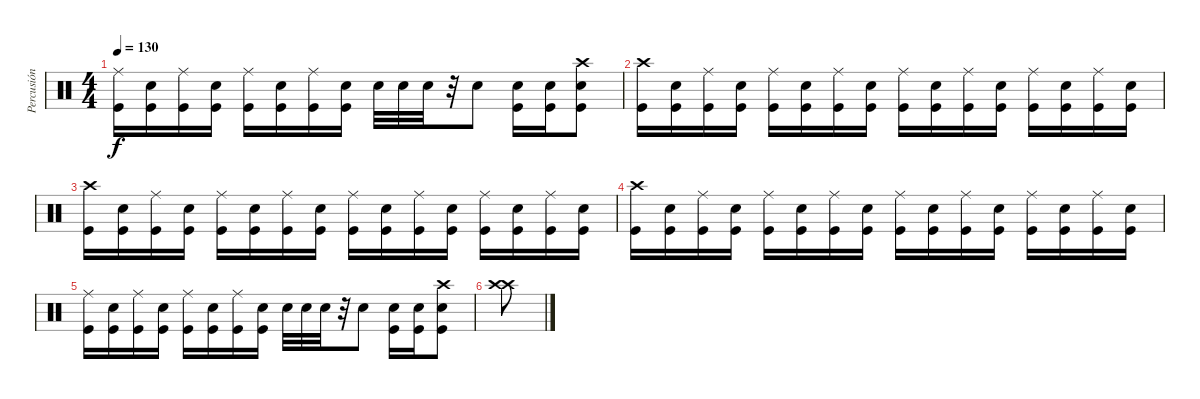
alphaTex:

\track ("Percusión" "Percusión") {instrument percussion}
\staff {score}
\articulation defaults
\ts (4 4)
\tempo 130
\clef neutral
\ks c
("Ride (middle)" "Kick (hit)").16{dy f} ("Electric Snare (hit)" "Kick (hit)").16 ("Ride (middle)" "Kick (hit)").16 ("Electric Snare (hit)" "Kick (hit)").16 ("Ride (middle)" "Kick (hit)").16 ("Electric Snare (hit)" "Kick (hit)").16 ("Ride (middle)" "Kick (hit)").16 ("Electric Snare (hit)" "Kick (hit)").16 "Electric Snare (hit)".32 "Electric Snare (hit)".32 "Electric Snare (hit)".32 r.32 "Electric Snare (hit)".8 ("Electric Snare (hit)" "Kick (hit)").16 ("Electric Snare (hit)" "Kick (hit)").16 ("Crash high (hit)" "Electric Snare (hit)" "Kick (hit)").8 |
("Crash high (hit)" "Kick (hit)").16 ("Electric Snare (hit)" "Kick (hit)").16 ("Ride (middle)" "Kick (hit)").16 ("Electric Snare (hit)" "Kick (hit)").16 ("Ride (middle)" "Kick (hit)").16 ("Electric Snare (hit)" "Kick (hit)").16 ("Ride (middle)" "Kick (hit)").16 ("Electric Snare (hit)" "Kick (hit)").16 ("Ride (middle)" "Kick (hit)").16 ("Electric Snare (hit)" "Kick (hit)").16 ("Ride (middle)" "Kick (hit)").16 ("Electric Snare (hit)" "Kick (hit)").16 ("Ride (middle)" "Kick (hit)").16 ("Electric Snare (hit)" "Kick (hit)").16 ("Ride (middle)" "Kick (hit)").16 ("Electric Snare (hit)" "Kick (hit)").16 |
("Crash high (hit)" "Kick (hit)").16 ("Electric Snare (hit)" "Kick (hit)").16 ("Ride (middle)" "Kick (hit)").16 ("Electric Snare (hit)" "Kick (hit)").16 ("Ride (middle)" "Kick (hit)").16 ("Electric Snare (hit)" "Kick (hit)").16 ("Ride (middle)" "Kick (hit)").16 ("Electric Snare (hit)" "Kick (hit)").16 ("Ride (middle)" "Kick (hit)").16 ("Electric Snare (hit)" "Kick (hit)").16 ("Ride (middle)" "Kick (hit)").16 ("Electric Snare (hit)" "Kick (hit)").16 ("Ride (middle)" "Kick (hit)").16 ("Electric Snare (hit)" "Kick (hit)").16 ("Ride (middle)" "Kick (hit)").16 ("Electric Snare (hit)" "Kick (hit)").16 |
("Crash high (hit)" "Kick (hit)").16 ("Electric Snare (hit)" "Kick (hit)").16 ("Ride (middle)" "Kick (hit)").16 ("Electric Snare (hit)" "Kick (hit)").16 ("Ride (middle)" "Kick (hit)").16 ("Electric Snare (hit)" "Kick (hit)").16 ("Ride (middle)" "Kick (hit)").16 ("Electric Snare (hit)" "Kick (hit)").16 ("Ride (middle)" "Kick (hit)").16 ("Electric Snare (hit)" "Kick (hit)").16 ("Ride (middle)" "Kick (hit)").16 ("Electric Snare (hit)" "Kick (hit)").16 ("Ride (middle)" "Kick (hit)").16 ("Electric Snare (hit)" "Kick (hit)").16 ("Ride (middle)" "Kick (hit)").16 ("Electric Snare (hit)" "Kick (hit)").16 |
("Ride (middle)" "Kick (hit)").16 ("Electric Snare (hit)" "Kick (hit)").16 ("Ride (middle)" "Kick (hit)").16 ("Electric Snare (hit)" "Kick (hit)").16 ("Ride (middle)" "Kick (hit)").16 ("Electric Snare (hit)" "Kick (hit)").16 ("Ride (middle)" "Kick (hit)").16 ("Electric Snare (hit)" "Kick (hit)").16 "Electric Snare (hit)".32 "Electric Snare (hit)".32 "Electric Snare (hit)".32 r.32 "Electric Snare (hit)".8 ("Electric Snare (hit)" "Kick (hit)").16 ("Electric Snare (hit)" "Kick (hit)").16 ("Crash high (hit)" "Electric Snare (hit)" "Kick (hit)").8 |
("Crash high (hit)" "Crash high (hit)").8
